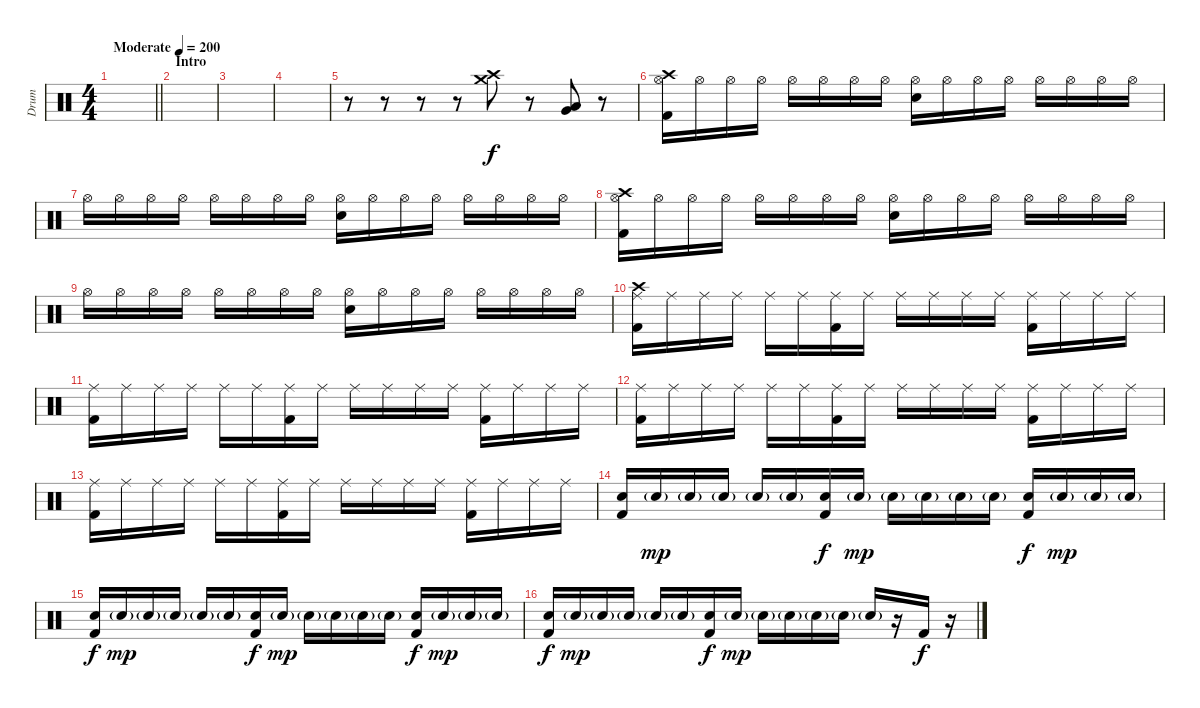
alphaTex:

\track ("Drum" "Drum") {instrument percussion}
\staff {score}
\articulation defaults
\ts (4 4)
\tempo (200 "Moderate")
\clef neutral
\barLineRight lightlight
\ks c
|
\section ("" "Intro")
|
|
|
r.8 r.8 r.8 r.8 ("Crash high (hit)" "Crash medium (hit)").8{volume 16} r.8 ("Low Floor Tom (hit)" "Very Low Tom (hit)").8 r.8 |
("Hi-Hat (open)" "Kick (hit) 2" "Crash high (hit)").16 "Hi-Hat (open)".16 "Hi-Hat (open)".16 "Hi-Hat (open)".16 "Hi-Hat (open)".16 "Hi-Hat (open)".16 "Hi-Hat (open)".16 "Hi-Hat (open)".16 ("Hi-Hat (open)" "Electric Snare (hit)").16 "Hi-Hat (open)".16 "Hi-Hat (open)".16 "Hi-Hat (open)".16 "Hi-Hat (open)".16 "Hi-Hat (open)".16 "Hi-Hat (open)".16 "Hi-Hat (open)".16 |
"Hi-Hat (open)".16 "Hi-Hat (open)".16 "Hi-Hat (open)".16 "Hi-Hat (open)".16 "Hi-Hat (open)".16 "Hi-Hat (open)".16 "Hi-Hat (open)".16 "Hi-Hat (open)".16 ("Hi-Hat (open)" "Electric Snare (hit)").16 "Hi-Hat (open)".16 "Hi-Hat (open)".16 "Hi-Hat (open)".16 "Hi-Hat (open)".16 "Hi-Hat (open)".16 "Hi-Hat (open)".16 "Hi-Hat (open)".16 |
("Hi-Hat (open)" "Kick (hit) 2" "Crash high (hit)").16 "Hi-Hat (open)".16 "Hi-Hat (open)".16 "Hi-Hat (open)".16 "Hi-Hat (open)".16 "Hi-Hat (open)".16 "Hi-Hat (open)".16 "Hi-Hat (open)".16 ("Hi-Hat (open)" "Electric Snare (hit)").16 "Hi-Hat (open)".16 "Hi-Hat (open)".16 "Hi-Hat (open)".16 "Hi-Hat (open)".16 "Hi-Hat (open)".16 "Hi-Hat (open)".16 "Hi-Hat (open)".16 |
"Hi-Hat (open)".16 "Hi-Hat (open)".16 "Hi-Hat (open)".16 "Hi-Hat (open)".16 "Hi-Hat (open)".16 "Hi-Hat (open)".16 "Hi-Hat (open)".16 "Hi-Hat (open)".16 ("Hi-Hat (open)" "Electric Snare (hit)").16 "Hi-Hat (open)".16 "Hi-Hat (open)".16 "Hi-Hat (open)".16 "Hi-Hat (open)".16 "Hi-Hat (open)".16 "Hi-Hat (open)".16 "Hi-Hat (open)".16 |
("Ride (middle)" "Kick (hit) 2" "Crash high (hit)").16 "Ride (middle)".16 "Ride (middle)".16 "Ride (middle)".16 "Ride (middle)".16 "Ride (middle)".16 ("Ride (middle)" "Kick (hit) 2").16 "Ride (middle)".16 "Ride (middle)".16 "Ride (middle)".16 "Ride (middle)".16 "Ride (middle)".16 ("Ride (middle)" "Kick (hit) 2").16 "Ride (middle)".16 "Ride (middle)".16 "Ride (middle)".16 |
("Ride (middle)" "Kick (hit) 2").16 "Ride (middle)".16 "Ride (middle)".16 "Ride (middle)".16 "Ride (middle)".16 "Ride (middle)".16 ("Ride (middle)" "Kick (hit) 2").16 "Ride (middle)".16 "Ride (middle)".16 "Ride (middle)".16 "Ride (middle)".16 "Ride (middle)".16 ("Ride (middle)" "Kick (hit) 2").16 "Ride (middle)".16 "Ride (middle)".16 "Ride (middle)".16 |
("Ride (middle)" "Kick (hit) 2").16 "Ride (middle)".16 "Ride (middle)".16 "Ride (middle)".16 "Ride (middle)".16 "Ride (middle)".16 ("Ride (middle)" "Kick (hit) 2").16 "Ride (middle)".16 "Ride (middle)".16 "Ride (middle)".16 "Ride (middle)".16 "Ride (middle)".16 ("Ride (middle)" "Kick (hit) 2").16 "Ride (middle)".16 "Ride (middle)".16 "Ride (middle)".16 |
("Ride (middle)" "Kick (hit) 2").16 "Ride (middle)".16 "Ride (middle)".16 "Ride (middle)".16 "Ride (middle)".16 "Ride (middle)".16 ("Ride (middle)" "Kick (hit) 2").16 "Ride (middle)".16 "Ride (middle)".16 "Ride (middle)".16 "Ride (middle)".16 "Ride (middle)".16 ("Ride (middle)" "Kick (hit) 2").16 "Ride (middle)".16 "Ride (middle)".16 "Ride (middle)".16 |
("Electric Snare (hit)" "Kick (hit) 2").16 "Electric Snare (hit)"{g}.16{dy mp} "Electric Snare (hit)"{g}.16 "Electric Snare (hit)"{g}.16 "Electric Snare (hit)"{g}.16 "Electric Snare (hit)"{g}.16 ("Electric Snare (hit)" "Kick (hit) 2").16{dy f} "Electric Snare (hit)"{g}.16{dy mp} "Electric Snare (hit)"{g}.16 "Electric Snare (hit)"{g}.16 "Electric Snare (hit)"{g}.16 "Electric Snare (hit)"{g}.16 ("Electric Snare (hit)" "Kick (hit) 2").16{dy f} "Electric Snare (hit)"{g}.16{dy mp} "Electric Snare (hit)"{g}.16 "Electric Snare (hit)"{g}.16 |
("Electric Snare (hit)" "Kick (hit) 2").16{dy f} "Electric Snare (hit)"{g}.16{dy mp} "Electric Snare (hit)"{g}.16 "Electric Snare (hit)"{g}.16 "Electric Snare (hit)"{g}.16 "Electric Snare (hit)"{g}.16 ("Electric Snare (hit)" "Kick (hit) 2").16{dy f} "Electric Snare (hit)"{g}.16{dy mp} "Electric Snare (hit)"{g}.16 "Electric Snare (hit)"{g}.16 "Electric Snare (hit)"{g}.16 "Electric Snare (hit)"{g}.16 ("Electric Snare (hit)" "Kick (hit) 2").16{dy f} "Electric Snare (hit)"{g}.16{dy mp} "Electric Snare (hit)"{g}.16 "Electric Snare (hit)"{g}.16 |
("Electric Snare (hit)" "Kick (hit) 2").16{dy f} "Electric Snare (hit)"{g}.16{dy mp} "Electric Snare (hit)"{g}.16 "Electric Snare (hit)"{g}.16 "Electric Snare (hit)"{g}.16 "Electric Snare (hit)"{g}.16 ("Electric Snare (hit)" "Kick (hit) 2").16{dy f} "Electric Snare (hit)"{g}.16{dy mp} "Electric Snare (hit)"{g}.16 "Electric Snare (hit)"{g}.16 "Electric Snare (hit)"{g}.16 "Electric Snare (hit)"{g}.16 "Electric Snare (hit)"{g}.16 r.16 "Kick (hit) 2".16{dy f} r.16
